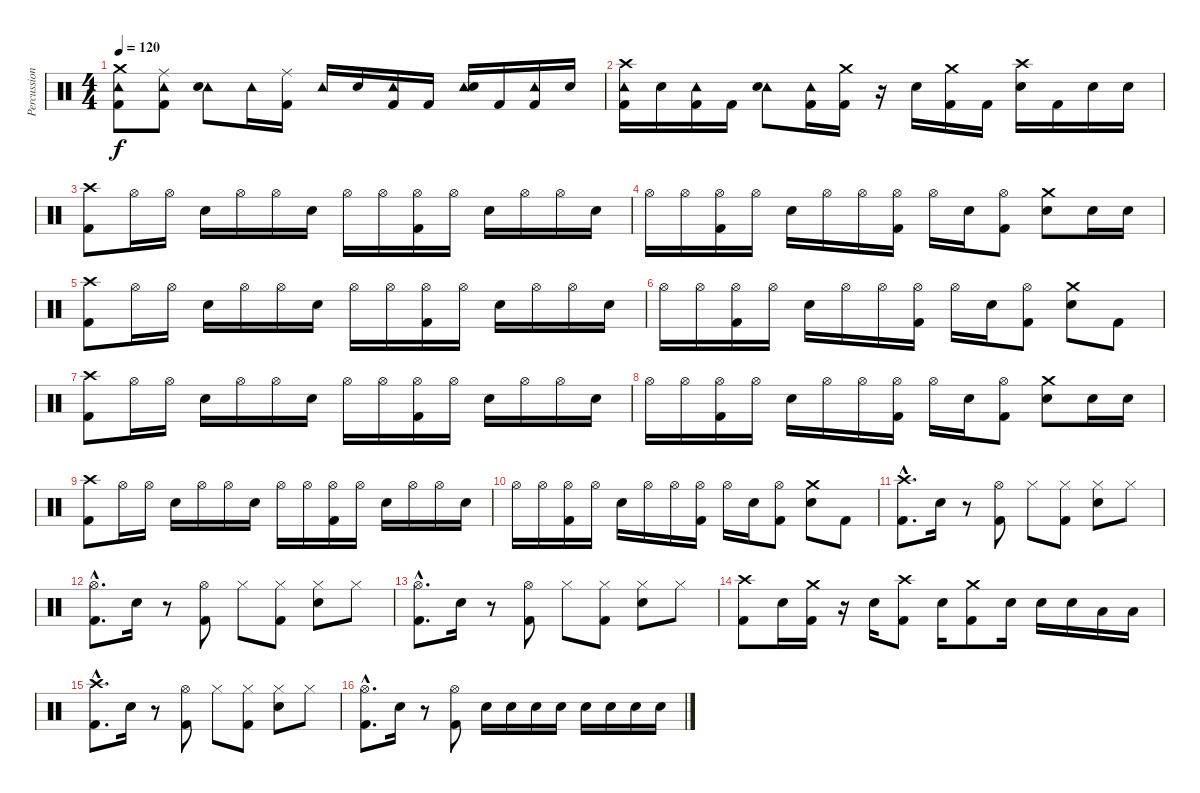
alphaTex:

\track ("Percussion" "Percussion") {instrument percussion}
\staff {score}
\articulation defaults
\ts (4 4)
\tempo 120
\clef neutral
\ks c
("Crash medium (hit)" "Tambourine (hit)" "Kick (hit) 2").8{dy f} ("Ride (middle)" "Tambourine (hit)" "Kick (hit) 2").8 ("Tambourine (hit)" "Snare (hit) 2").8 "Tambourine (hit)".16 ("Ride (middle)" "Kick (hit) 2").16 "Tambourine (hit)".16 "Snare (hit) 2".16 ("Tambourine (hit)" "Kick (hit) 2").16 "Kick (hit) 2".16 ("Tambourine (hit)" "Snare (hit) 2").16 "Kick (hit) 2".16 ("Tambourine (hit)" "Kick (hit) 2").16 "Snare (hit) 2".16 |
("Crash high (hit)" "Tambourine (hit)" "Kick (hit) 2").16 "Snare (hit) 2".16 ("Tambourine (hit)" "Kick (hit) 2").16 "Kick (hit) 2".16 ("Tambourine (hit)" "Snare (hit) 2").8 ("Tambourine (hit)" "Kick (hit) 2").16 ("Crash medium (hit)" "Kick (hit) 2").16 r.16 "Snare (hit) 2".16 ("Crash medium (hit)" "Kick (hit) 2").16 "Kick (hit) 2".16 ("Crash high (hit)" "Snare (hit) 2").16 "Kick (hit) 2".16 "Snare (hit) 2".16 "Snare (hit) 2".16 |
("Crash high (hit)" "Kick (hit) 2").8 "Hi-Hat (open)".16 "Hi-Hat (open)".16 "Snare (hit) 2".16 "Hi-Hat (open)".16 "Hi-Hat (open)".16 "Snare (hit) 2".16 "Hi-Hat (open)".16 "Hi-Hat (open)".16 ("Hi-Hat (open)" "Kick (hit) 2").16 "Hi-Hat (open)".16 "Snare (hit) 2".16 "Hi-Hat (open)".16 "Hi-Hat (open)".16 "Snare (hit) 2".16 |
"Hi-Hat (open)".16 "Hi-Hat (open)".16 ("Hi-Hat (open)" "Kick (hit) 2").16 "Hi-Hat (open)".16 "Snare (hit) 2".16 "Hi-Hat (open)".16 "Hi-Hat (open)".16 ("Hi-Hat (open)" "Kick (hit) 2").16 "Hi-Hat (open)".16 "Snare (hit) 2".16 ("Hi-Hat (open)" "Kick (hit) 2").8 ("Crash medium (hit)" "Snare (hit) 2").8 "Snare (hit) 2".16 "Snare (hit) 2".16 |
("Crash high (hit)" "Kick (hit) 2").8 "Hi-Hat (open)".16 "Hi-Hat (open)".16 "Snare (hit) 2".16 "Hi-Hat (open)".16 "Hi-Hat (open)".16 "Snare (hit) 2".16 "Hi-Hat (open)".16 "Hi-Hat (open)".16 ("Hi-Hat (open)" "Kick (hit) 2").16 "Hi-Hat (open)".16 "Snare (hit) 2".16 "Hi-Hat (open)".16 "Hi-Hat (open)".16 "Snare (hit) 2".16 |
"Hi-Hat (open)".16 "Hi-Hat (open)".16 ("Hi-Hat (open)" "Kick (hit) 2").16 "Hi-Hat (open)".16 "Snare (hit) 2".16 "Hi-Hat (open)".16 "Hi-Hat (open)".16 ("Hi-Hat (open)" "Kick (hit) 2").16 "Hi-Hat (open)".16 "Snare (hit) 2".16 ("Hi-Hat (open)" "Kick (hit) 2").8 ("Crash medium (hit)" "Snare (hit) 2").8 "Kick (hit) 2".8 |
("Crash high (hit)" "Kick (hit) 2").8 "Hi-Hat (open)".16 "Hi-Hat (open)".16 "Snare (hit) 2".16 "Hi-Hat (open)".16 "Hi-Hat (open)".16 "Snare (hit) 2".16 "Hi-Hat (open)".16 "Hi-Hat (open)".16 ("Hi-Hat (open)" "Kick (hit) 2").16 "Hi-Hat (open)".16 "Snare (hit) 2".16 "Hi-Hat (open)".16 "Hi-Hat (open)".16 "Snare (hit) 2".16 |
"Hi-Hat (open)".16 "Hi-Hat (open)".16 ("Hi-Hat (open)" "Kick (hit) 2").16 "Hi-Hat (open)".16 "Snare (hit) 2".16 "Hi-Hat (open)".16 "Hi-Hat (open)".16 ("Hi-Hat (open)" "Kick (hit) 2").16 "Hi-Hat (open)".16 "Snare (hit) 2".16 ("Hi-Hat (open)" "Kick (hit) 2").8 ("Crash medium (hit)" "Snare (hit) 2").8 "Snare (hit) 2".16 "Snare (hit) 2".16 |
("Crash high (hit)" "Kick (hit) 2").8 "Hi-Hat (open)".16 "Hi-Hat (open)".16 "Snare (hit) 2".16 "Hi-Hat (open)".16 "Hi-Hat (open)".16 "Snare (hit) 2".16 "Hi-Hat (open)".16 "Hi-Hat (open)".16 ("Hi-Hat (open)" "Kick (hit) 2").16 "Hi-Hat (open)".16 "Snare (hit) 2".16 "Hi-Hat (open)".16 "Hi-Hat (open)".16 "Snare (hit) 2".16 |
"Hi-Hat (open)".16 "Hi-Hat (open)".16 ("Hi-Hat (open)" "Kick (hit) 2").16 "Hi-Hat (open)".16 "Snare (hit) 2".16 "Hi-Hat (open)".16 "Hi-Hat (open)".16 ("Hi-Hat (open)" "Kick (hit) 2").16 "Hi-Hat (open)".16 "Snare (hit) 2".16 ("Hi-Hat (open)" "Kick (hit) 2").8 ("Crash medium (hit)" "Snare (hit) 2").8 "Kick (hit) 2".8 |
("Crash high (hit)"{hac} "Kick (hit) 2"{hac}).8{d} "Snare (hit) 2".16 r.8 ("Hi-Hat (open)" "Kick (hit) 2").8 "Hi-Hat (closed)".8 ("Hi-Hat (closed)" "Kick (hit) 2").8 ("Hi-Hat (closed)" "Snare (hit) 2").8 "Hi-Hat (closed)".8 |
("Hi-Hat (open)"{hac} "Kick (hit) 2"{hac}).8{d} "Snare (hit) 2".16 r.8 ("Hi-Hat (open)" "Kick (hit) 2").8 "Hi-Hat (closed)".8 ("Hi-Hat (closed)" "Kick (hit) 2").8 ("Hi-Hat (closed)" "Snare (hit) 2").8 "Hi-Hat (closed)".8 |
("Hi-Hat (open)"{hac} "Kick (hit) 2"{hac}).8{d} "Snare (hit) 2".16 r.8 ("Hi-Hat (open)" "Kick (hit) 2").8 "Hi-Hat (closed)".8 ("Hi-Hat (closed)" "Kick (hit) 2").8 ("Hi-Hat (closed)" "Snare (hit) 2").8 "Hi-Hat (closed)".8 |
("Crash high (hit)" "Kick (hit) 2").8 "Snare (hit) 2".16 ("Crash medium (hit)" "Kick (hit) 2").16 r.16 "Snare (hit) 2".16 ("Crash high (hit)" "Kick (hit) 2").8 "Snare (hit) 2".16 ("Crash medium (hit)" "Kick (hit) 2").8 "Snare (hit) 2".16 "Snare (hit) 2".16 "Snare (hit) 2".16 "Low Tom (hit)".16 "Low Tom (hit)".16 |
("Crash high (hit)"{hac} "Kick (hit) 2"{hac}).8{d} "Snare (hit) 2".16 r.8 ("Hi-Hat (open)" "Kick (hit) 2").8 "Hi-Hat (closed)".8 ("Hi-Hat (closed)" "Kick (hit) 2").8 ("Hi-Hat (closed)" "Snare (hit) 2").8 "Hi-Hat (closed)".8 |
("Hi-Hat (open)"{hac} "Kick (hit) 2"{hac}).8{d} "Snare (hit) 2".16 r.8 ("Hi-Hat (open)" "Kick (hit) 2").8 "Snare (hit) 2".16 "Snare (hit) 2".16 "Snare (hit) 2".16 "Snare (hit) 2".16 "Snare (hit) 2".16 "Snare (hit) 2".16 "Snare (hit) 2".16 "Snare (hit) 2".16
